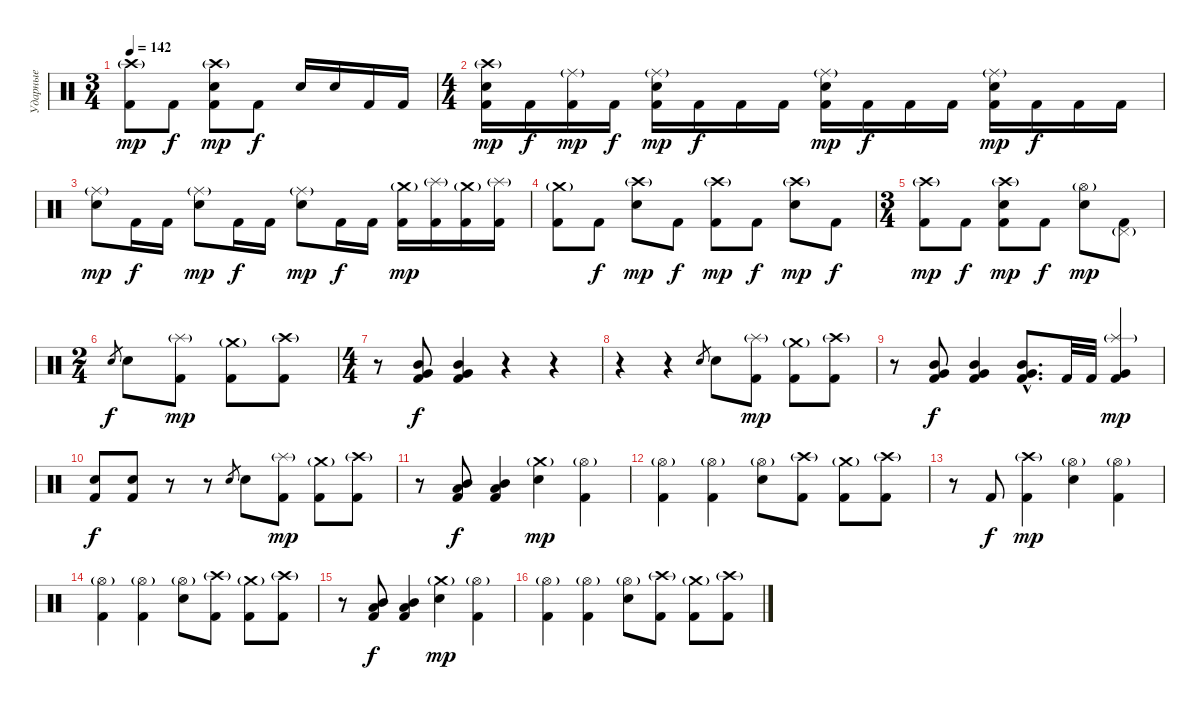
\track ("Ударные" "Ударные") {instrument percussion}
\staff {score}
\articulation defaults
\ts (3 4)
\tempo 142
\clef neutral
\ks c
("Crash high (hit)"{g} "Kick (hit) 2").8{dy mp} "Kick (hit) 2".8{dy f} ("Crash high (hit)"{g} "Electric Snare (hit)" "Kick (hit) 2").8{dy mp} "Kick (hit) 2".8{dy f} "Electric Snare (hit)".16 "Electric Snare (hit)".16 "Kick (hit) 2".16 "Kick (hit) 2".16 |
\ts (4 4)
("Crash high (hit)"{g} "Electric Snare (hit)" "Kick (hit) 2").16{dy mp} "Kick (hit) 2".16{dy f} ("Ride (middle)"{g} "Kick (hit) 2").16{dy mp} "Kick (hit) 2".16{dy f} ("Ride (middle)"{g} "Electric Snare (hit)" "Kick (hit) 2").16{dy mp} "Kick (hit) 2".16{dy f} "Kick (hit) 2".16 "Kick (hit) 2".16 ("Ride (middle)"{g} "Electric Snare (hit)" "Kick (hit) 2").16{dy mp} "Kick (hit) 2".16{dy f} "Kick (hit) 2".16 "Kick (hit) 2".16 ("Ride (middle)"{g} "Electric Snare (hit)" "Kick (hit) 2").16{dy mp} "Kick (hit) 2".16{dy f} "Kick (hit) 2".16 "Kick (hit) 2".16 |
("Ride (middle)"{g} "Electric Snare (hit)").8{dy mp} "Kick (hit) 2".16{dy f} "Kick (hit) 2".16 ("Ride (middle)"{g} "Electric Snare (hit)").8{dy mp} "Kick (hit) 2".16{dy f} "Kick (hit) 2".16 ("Ride (middle)"{g} "Electric Snare (hit)").8{dy mp} "Kick (hit) 2".16{dy f} "Kick (hit) 2".16 ("Crash medium (hit)"{g} "Kick (hit) 2").16{dy mp} ("Splash (hit)"{g} "Kick (hit) 2").16 ("Crash medium (hit)"{g} "Kick (hit) 2").16 ("Splash (hit)"{g} "Kick (hit) 2").16 |
("Crash medium (hit)"{g} "Kick (hit) 2").8 "Kick (hit) 2".8{dy f} ("Crash high (hit)"{g} "Electric Snare (hit)").8{dy mp} "Kick (hit) 2".8{dy f} ("Crash high (hit)"{g} "Kick (hit) 2").8{dy mp} "Kick (hit) 2".8{dy f} ("Crash high (hit)"{g} "Electric Snare (hit)").8{dy mp} "Kick (hit) 2".8{dy f} |
\ts (3 4)
("Crash high (hit)"{g} "Kick (hit) 2").8{dy mp} "Kick (hit) 2".8{dy f} ("Crash high (hit)"{g} "Electric Snare (hit)" "Kick (hit) 2").8{dy mp} "Kick (hit) 2".8{dy f} ("Hi-Hat (open)"{g} "Electric Snare (hit)").8{dy mp} ("Pedal Hi-Hat (hit)"{g} "Kick (hit) 2").8 |
\ts (2 4)
"Electric Snare (hit)".8{gr dy f} "Electric Snare (hit)".8 ("Splash (hit)"{g} "Kick (hit) 2").8{dy mp} ("Crash medium (hit)"{g} "Kick (hit) 2").8 ("Crash high (hit)"{g} "Kick (hit) 2").8 |
\ts (4 4)
r.8 ("Very Low Tom (hit)" "Mid Tom (hit)" "Kick (hit) 2").8{dy f} ("Very Low Tom (hit)" "Mid Tom (hit)" "Kick (hit) 2").4 r.4 r.4 |
r.4 r.4 "Electric Snare (hit)".8{gr} "Electric Snare (hit)".8 ("Splash (hit)"{g} "Kick (hit) 2").8{dy mp} ("Crash medium (hit)"{g} "Kick (hit) 2").8 ("Crash high (hit)"{g} "Kick (hit) 2").8 |
r.8 ("Very Low Tom (hit)" "Mid Tom (hit)" "Kick (hit) 2").8{dy f} ("Very Low Tom (hit)" "Mid Tom (hit)" "Kick (hit) 2").4 ("Very Low Tom (hit)"{hac} "Mid Tom (hit)"{hac} "Kick (hit) 2"{hac}).8{d} "Kick (hit) 2".32 "Kick (hit) 2".32 ("Splash (hit)"{g} "Very Low Tom (hit)" "Kick (hit) 2").4{dy mp} |
("Electric Snare (hit)" "Kick (hit) 2").8{dy f} ("Electric Snare (hit)" "Kick (hit) 2").8 r.8 r.8 "Electric Snare (hit)".8{gr} "Electric Snare (hit)".8 ("Splash (hit)"{g} "Kick (hit) 2").8{dy mp} ("Crash medium (hit)"{g} "Kick (hit) 2").8 ("Crash high (hit)"{g} "Kick (hit) 2").8 |
r.8 ("Low Tom (hit)" "Mid Tom (hit)" "Kick (hit) 2").8{dy f} ("Low Tom (hit)" "Mid Tom (hit)" "Kick (hit) 2").4 ("Crash medium (hit)"{g} "Electric Snare (hit)").4{dy mp} ("Hi-Hat (open)"{g} "Kick (hit) 2").4 |
("Hi-Hat (open)"{g} "Kick (hit) 2").4 ("Hi-Hat (open)"{g} "Kick (hit) 2").4 ("Hi-Hat (open)"{g} "Electric Snare (hit)").8 ("Crash high (hit)"{g} "Kick (hit) 2").8 ("Crash medium (hit)"{g} "Kick (hit) 2").8 ("Crash high (hit)"{g} "Kick (hit) 2").8 |
r.8 "Kick (hit) 2".8{dy f} ("Crash high (hit)"{g} "Kick (hit) 2").4{dy mp} ("Hi-Hat (open)"{g} "Electric Snare (hit)").4 ("Hi-Hat (open)"{g} "Kick (hit) 2").4 |
("Hi-Hat (open)"{g} "Kick (hit) 2").4 ("Hi-Hat (open)"{g} "Kick (hit) 2").4 ("Hi-Hat (open)"{g} "Electric Snare (hit)").8 ("Crash high (hit)"{g} "Kick (hit) 2").8 ("Crash medium (hit)"{g} "Kick (hit) 2").8 ("Crash high (hit)"{g} "Kick (hit) 2").8 |
r.8 ("Low Tom (hit)" "Mid Tom (hit)" "Kick (hit) 2").8{dy f} ("Low Tom (hit)" "Mid Tom (hit)" "Kick (hit) 2").4 ("Crash medium (hit)"{g} "Electric Snare (hit)").4{dy mp} ("Hi-Hat (open)"{g} "Kick (hit) 2").4 |
("Hi-Hat (open)"{g} "Kick (hit) 2").4 ("Hi-Hat (open)"{g} "Kick (hit) 2").4 ("Hi-Hat (open)"{g} "Electric Snare (hit)").8 ("Crash high (hit)"{g} "Kick (hit) 2").8 ("Crash medium (hit)"{g} "Kick (hit) 2").8 ("Crash high (hit)"{g} "Kick (hit) 2").8
